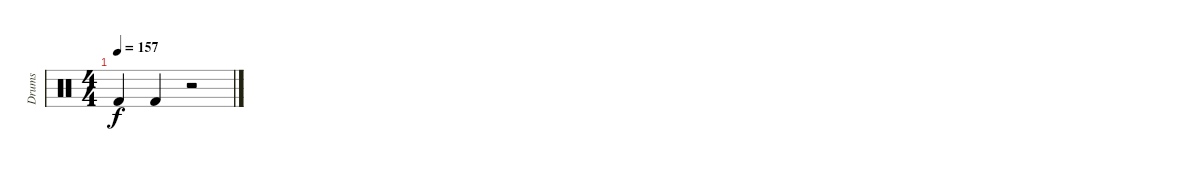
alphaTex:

\track ("Drums" "Drums") {instrument percussion}
\staff {score}
\articulation defaults
\ts (4 4)
\tempo 157
\clef neutral
\ks c "Kick (hit) 2".4{dy f} "Kick (hit) 2".4
r.2
